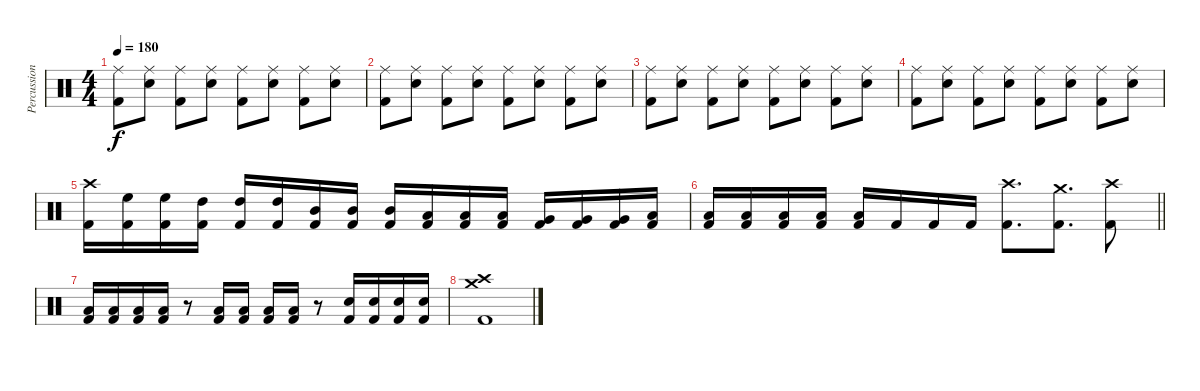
\track ("Percussion" "Percussion") {instrument percussion}
\staff {score}
\articulation defaults
\ts (4 4)
\tempo 180
\clef neutral
\ks c
("Ride (middle)" "Kick (hit) 2").8{dy f} ("Ride (middle)" "Electric Snare (hit)").8 ("Ride (middle)" "Kick (hit) 2").8 ("Ride (middle)" "Electric Snare (hit)").8 ("Ride (middle)" "Kick (hit) 2").8 ("Ride (middle)" "Electric Snare (hit)").8 ("Ride (middle)" "Kick (hit) 2").8 ("Ride (middle)" "Electric Snare (hit)").8 |
("Ride (middle)" "Kick (hit) 2").8 ("Ride (middle)" "Electric Snare (hit)").8 ("Ride (middle)" "Kick (hit) 2").8 ("Ride (middle)" "Electric Snare (hit)").8 ("Ride (middle)" "Kick (hit) 2").8 ("Ride (middle)" "Electric Snare (hit)").8 ("Ride (middle)" "Kick (hit) 2").8 ("Ride (middle)" "Electric Snare (hit)").8 |
("Ride (middle)" "Kick (hit) 2").8 ("Ride (middle)" "Electric Snare (hit)").8 ("Ride (middle)" "Kick (hit) 2").8 ("Ride (middle)" "Electric Snare (hit)").8 ("Ride (middle)" "Kick (hit) 2").8 ("Ride (middle)" "Electric Snare (hit)").8 ("Ride (middle)" "Kick (hit) 2").8 ("Ride (middle)" "Electric Snare (hit)").8 |
("Ride (middle)" "Kick (hit) 2").8 ("Ride (middle)" "Electric Snare (hit)").8 ("Ride (middle)" "Kick (hit) 2").8 ("Ride (middle)" "Electric Snare (hit)").8 ("Ride (middle)" "Kick (hit) 2").8 ("Ride (middle)" "Electric Snare (hit)").8 ("Ride (middle)" "Kick (hit) 2").8 ("Ride (middle)" "Electric Snare (hit)").8 |
("Crash high (hit)" "Kick (hit) 2").16 ("High Floor Tom (hit)" "Kick (hit) 2").16 ("High Floor Tom (hit)" "Kick (hit) 2").16 ("High Tom (hit)" "Kick (hit) 2").16 ("High Tom (hit)" "Kick (hit) 2").16 ("High Tom (hit)" "Kick (hit) 2").16 ("Mid Tom (hit)" "Kick (hit) 2").16 ("Mid Tom (hit)" "Kick (hit) 2").16 ("Mid Tom (hit)" "Kick (hit) 2").16 ("Low Tom (hit)" "Kick (hit) 2").16 ("Low Tom (hit)" "Kick (hit) 2").16 ("Low Tom (hit)" "Kick (hit) 2").16 ("Very Low Tom (hit)" "Kick (hit) 2").16 ("Very Low Tom (hit)" "Kick (hit) 2").16 ("Very Low Tom (hit)" "Kick (hit) 2").16 ("Low Floor Tom (hit)" "Kick (hit) 2").16 |
\barLineRight lightlight
("Low Floor Tom (hit)" "Kick (hit) 2").16 ("Low Floor Tom (hit)" "Kick (hit) 2").16 ("Low Floor Tom (hit)" "Kick (hit) 2").16 ("Low Floor Tom (hit)" "Kick (hit) 2").16 ("Low Floor Tom (hit)" "Kick (hit) 2").16 "Kick (hit) 2".16 "Kick (hit) 2".16 "Kick (hit) 2".16 ("Crash high (hit)" "Kick (hit) 2").8{d} ("Crash medium (hit)" "Kick (hit) 2").8{d} ("Crash high (hit)" "Kick (hit) 2").8 |
("Low Floor Tom (hit)" "Kick (hit) 2").16 ("Low Floor Tom (hit)" "Kick (hit) 2").16 ("Low Floor Tom (hit)" "Kick (hit) 2").16 ("Low Floor Tom (hit)" "Kick (hit) 2").16 r.8 ("Low Floor Tom (hit)" "Kick (hit) 2").16 ("Low Floor Tom (hit)" "Kick (hit) 2").16 ("Low Floor Tom (hit)" "Kick (hit) 2").16 ("Low Floor Tom (hit)" "Kick (hit) 2").16 r.8 ("Electric Snare (hit)" "Kick (hit) 2").16 ("Electric Snare (hit)" "Kick (hit) 2").16 ("Electric Snare (hit)" "Kick (hit) 2").16 ("Electric Snare (hit)" "Kick (hit) 2").16 |
("Crash medium (hit)" "Crash high (hit)" "Kick (hit) 2").1
